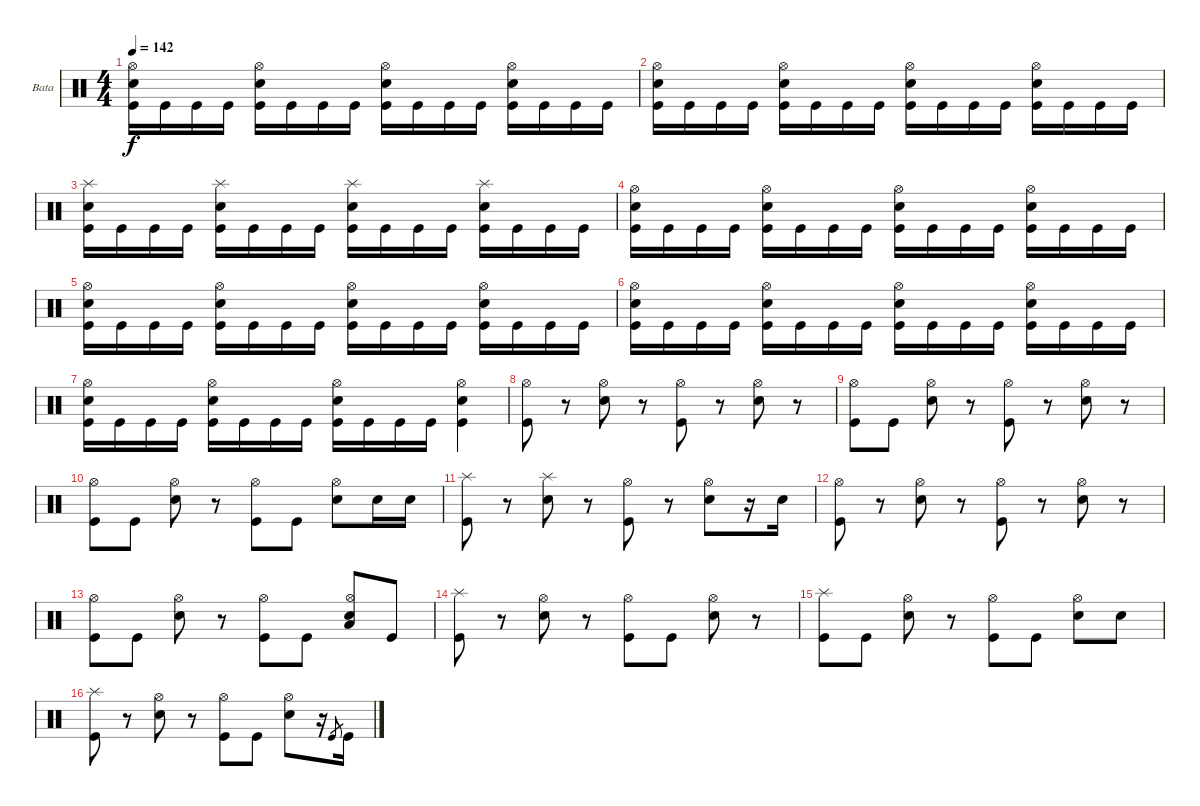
\bracketExtendMode groupsimilarinstruments
\firstSystemTrackNameOrientation horizontal
\otherSystemsTrackNameOrientation horizontal
\track ("Bateria" "Bata") {instrument percussion}
\staff {score}
\articulation defaults
\ts (4 4)
\tempo 142
\clef neutral
\ks c
("Kick (hit)" "Snare (hit) 2" "Hi-Hat (open)").16{dy f} "Kick (hit)".16 "Kick (hit)".16 "Kick (hit)".16 ("Kick (hit)" "Snare (hit) 2" "Hi-Hat (open)").16 "Kick (hit)".16 "Kick (hit)".16 "Kick (hit)".16 ("Kick (hit)" "Snare (hit) 2" "Hi-Hat (open)").16 "Kick (hit)".16 "Kick (hit)".16 "Kick (hit)".16 ("Kick (hit)" "Snare (hit) 2" "Hi-Hat (open)").16 "Kick (hit)".16 "Kick (hit)".16 "Kick (hit)".16 |
("Kick (hit)" "Snare (hit) 2" "Hi-Hat (open)").16 "Kick (hit)".16 "Kick (hit)".16 "Kick (hit)".16 ("Kick (hit)" "Snare (hit) 2" "Hi-Hat (open)").16 "Kick (hit)".16 "Kick (hit)".16 "Kick (hit)".16 ("Kick (hit)" "Snare (hit) 2" "Hi-Hat (open)").16 "Kick (hit)".16 "Kick (hit)".16 "Kick (hit)".16 ("Kick (hit)" "Snare (hit) 2" "Hi-Hat (open)").16 "Kick (hit)".16 "Kick (hit)".16 "Kick (hit)".16 |
("Kick (hit)" "Snare (hit) 2" "Splash (hit)").16 "Kick (hit)".16 "Kick (hit)".16 "Kick (hit)".16 ("Kick (hit)" "Snare (hit) 2" "Splash (hit)").16 "Kick (hit)".16 "Kick (hit)".16 "Kick (hit)".16 ("Kick (hit)" "Snare (hit) 2" "Splash (hit)").16 "Kick (hit)".16 "Kick (hit)".16 "Kick (hit)".16 ("Kick (hit)" "Snare (hit) 2" "Splash (hit)").16 "Kick (hit)".16 "Kick (hit)".16 "Kick (hit)".16 |
("Kick (hit)" "Snare (hit) 2" "Hi-Hat (open)").16 "Kick (hit)".16 "Kick (hit)".16 "Kick (hit)".16 ("Kick (hit)" "Snare (hit) 2" "Hi-Hat (open)").16 "Kick (hit)".16 "Kick (hit)".16 "Kick (hit)".16 ("Kick (hit)" "Snare (hit) 2" "Hi-Hat (open)").16 "Kick (hit)".16 "Kick (hit)".16 "Kick (hit)".16 ("Kick (hit)" "Snare (hit) 2" "Hi-Hat (open)").16 "Kick (hit)".16 "Kick (hit)".16 "Kick (hit)".16 |
("Kick (hit)" "Snare (hit) 2" "Hi-Hat (open)").16 "Kick (hit)".16 "Kick (hit)".16 "Kick (hit)".16 ("Kick (hit)" "Snare (hit) 2" "Hi-Hat (open)").16 "Kick (hit)".16 "Kick (hit)".16 "Kick (hit)".16 ("Kick (hit)" "Snare (hit) 2" "Hi-Hat (open)").16 "Kick (hit)".16 "Kick (hit)".16 "Kick (hit)".16 ("Kick (hit)" "Snare (hit) 2" "Hi-Hat (open)").16 "Kick (hit)".16 "Kick (hit)".16 "Kick (hit)".16 |
("Kick (hit)" "Snare (hit) 2" "Hi-Hat (open)").16 "Kick (hit)".16 "Kick (hit)".16 "Kick (hit)".16 ("Kick (hit)" "Snare (hit) 2" "Hi-Hat (open)").16 "Kick (hit)".16 "Kick (hit)".16 "Kick (hit)".16 ("Kick (hit)" "Snare (hit) 2" "Hi-Hat (open)").16 "Kick (hit)".16 "Kick (hit)".16 "Kick (hit)".16 ("Kick (hit)" "Snare (hit) 2" "Hi-Hat (open)").16 "Kick (hit)".16 "Kick (hit)".16 "Kick (hit)".16 |
("Kick (hit)" "Snare (hit) 2" "Hi-Hat (open)").16 "Kick (hit)".16 "Kick (hit)".16 "Kick (hit)".16 ("Kick (hit)" "Snare (hit) 2" "Hi-Hat (open)").16 "Kick (hit)".16 "Kick (hit)".16 "Kick (hit)".16 ("Kick (hit)" "Snare (hit) 2" "Hi-Hat (open)").16 "Kick (hit)".16 "Kick (hit)".16 "Kick (hit)".16 ("Kick (hit)" "Snare (hit) 2" "Hi-Hat (open)").4 |
("Hi-Hat (open)" "Kick (hit)").8 r.8 ("Hi-Hat (open)" "Snare (hit) 2").8 r.8 ("Hi-Hat (open)" "Kick (hit)").8 r.8 ("Hi-Hat (open)" "Snare (hit) 2").8 r.8 |
("Hi-Hat (open)" "Kick (hit)").8 "Kick (hit)".8 ("Hi-Hat (open)" "Snare (hit) 2").8 r.8 ("Hi-Hat (open)" "Kick (hit)").8 r.8 ("Hi-Hat (open)" "Snare (hit) 2").8 r.8 |
("Hi-Hat (open)" "Kick (hit)").8 "Kick (hit)".8 ("Hi-Hat (open)" "Snare (hit) 2").8 r.8 ("Hi-Hat (open)" "Kick (hit)").8 "Kick (hit)".8 ("Hi-Hat (open)" "Snare (hit) 2").8 "Snare (hit) 2".16 "Snare (hit) 2".16 |
("Kick (hit)" "Splash (hit)").8 r.8 ("Snare (hit) 2" "Splash (hit)").8 r.8 ("Hi-Hat (open)" "Kick (hit)").8 r.8 ("Hi-Hat (open)" "Snare (hit) 2").8 r.16 "Snare (hit) 2".16 |
("Hi-Hat (open)" "Kick (hit)").8 r.8 ("Hi-Hat (open)" "Snare (hit) 2").8 r.8 ("Hi-Hat (open)" "Kick (hit)").8 r.8 ("Hi-Hat (open)" "Snare (hit) 2").8 r.8 |
("Hi-Hat (open)" "Kick (hit)").8 "Kick (hit)".8 ("Hi-Hat (open)" "Snare (hit) 2").8 r.8 ("Hi-Hat (open)" "Kick (hit)").8 "Kick (hit)".8 ("Hi-Hat (open)" "Low Tom (hit)" "Snare (hit) 2").8 "Kick (hit)".8 |
("Kick (hit)" "Splash (hit)").8 r.8 ("Hi-Hat (open)" "Snare (hit) 2").8 r.8 ("Hi-Hat (open)" "Kick (hit)").8 "Kick (hit)".8 ("Hi-Hat (open)" "Snare (hit) 2").8 r.8 |
("Kick (hit)" "Splash (hit)").8 "Kick (hit)".8 ("Hi-Hat (open)" "Snare (hit) 2").8 r.8 ("Hi-Hat (open)" "Kick (hit)").8 "Kick (hit)".8 ("Hi-Hat (open)" "Snare (hit) 2").8 "Snare (hit) 2".8 |
("Kick (hit)" "Splash (hit)").8 r.8 ("Hi-Hat (open)" "Snare (hit) 2").8 r.8 ("Hi-Hat (open)" "Kick (hit)").8 "Kick (hit)".8 ("Hi-Hat (open)" "Snare (hit) 2").8 r.16 "Kick (hit)".8{gr} "Kick (hit)".16
